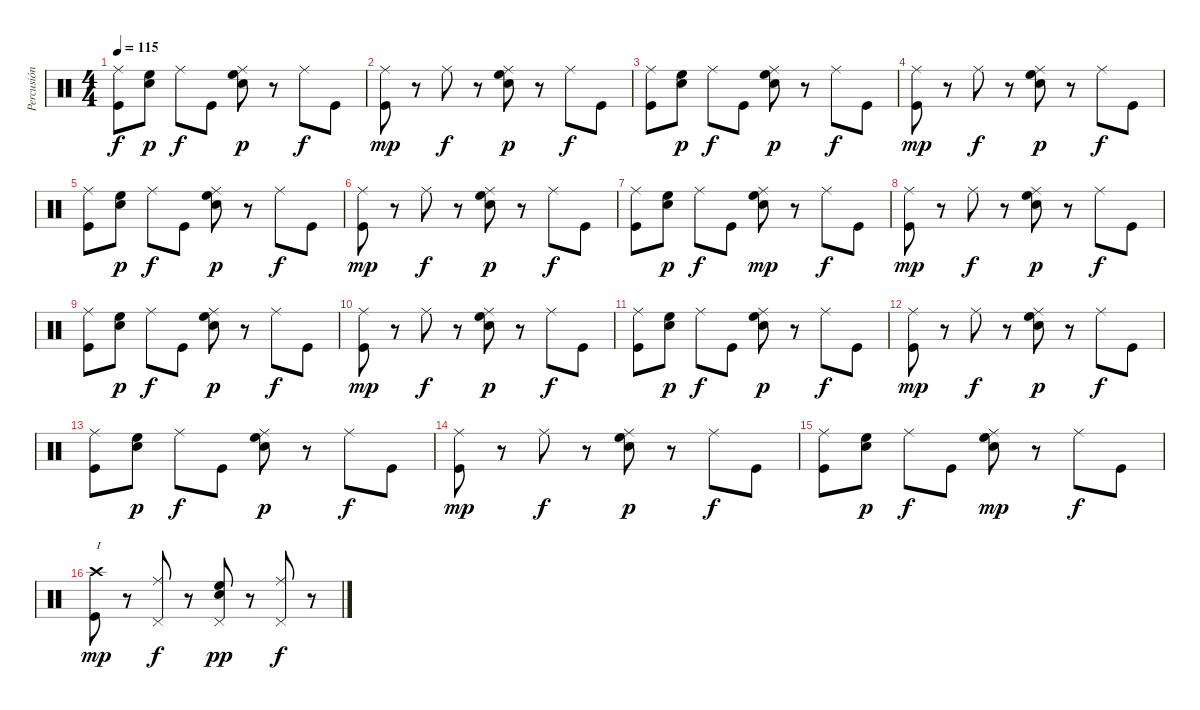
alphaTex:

\track ("Percusión" "Percusión") {instrument percussion}
\staff {score}
\articulation defaults
\ts (4 4)
\tempo 115
\clef neutral
\ks c
("Ride (middle)" "Kick (hit)").8{dy f} ("High Floor Tom (hit)" "Electric Snare (hit)").8{dy p} "Ride (middle)".8{dy f} "Kick (hit)".8 ("Ride (middle)" "High Floor Tom (hit)" "Electric Snare (hit)").8{dy p} r.8 "Ride (middle)".8{dy f} "Kick (hit)".8 |
("Ride (middle)" "Kick (hit)").8{dy mp} r.8 "Ride (middle)".8{dy f} r.8 ("Ride (middle)" "Electric Snare (hit)" "High Floor Tom (hit)").8{dy p} r.8 "Ride (middle)".8{dy f} "Kick (hit)".8 |
("Ride (middle)" "Kick (hit)").8 ("High Floor Tom (hit)" "Electric Snare (hit)").8{dy p} "Ride (middle)".8{dy f} "Kick (hit)".8 ("Ride (middle)" "High Floor Tom (hit)" "Electric Snare (hit)").8{dy p} r.8 "Ride (middle)".8{dy f} "Kick (hit)".8 |
("Ride (middle)" "Kick (hit)").8{dy mp} r.8 "Ride (middle)".8{dy f} r.8 ("Ride (middle)" "Electric Snare (hit)" "High Floor Tom (hit)").8{dy p} r.8 "Ride (middle)".8{dy f} "Kick (hit)".8 |
("Ride (middle)" "Kick (hit)").8 ("High Floor Tom (hit)" "Electric Snare (hit)").8{dy p} "Ride (middle)".8{dy f} "Kick (hit)".8 ("Ride (middle)" "High Floor Tom (hit)" "Electric Snare (hit)").8{dy p} r.8 "Ride (middle)".8{dy f} "Kick (hit)".8 |
("Ride (middle)" "Kick (hit)").8{dy mp} r.8 "Ride (middle)".8{dy f} r.8 ("Ride (middle)" "Electric Snare (hit)" "High Floor Tom (hit)").8{dy p} r.8 "Ride (middle)".8{dy f} "Kick (hit)".8 |
("Ride (middle)" "Kick (hit)").8 ("High Floor Tom (hit)" "Electric Snare (hit)").8{dy p} "Ride (middle)".8{dy f} "Kick (hit)".8 ("Ride (middle)" "High Floor Tom (hit)" "Electric Snare (hit)").8{dy mp} r.8 "Ride (middle)".8{dy f} "Kick (hit)".8 |
("Ride (middle)" "Kick (hit)").8{dy mp} r.8 "Ride (middle)".8{dy f} r.8 ("Ride (middle)" "Electric Snare (hit)" "High Floor Tom (hit)").8{dy p} r.8 "Ride (middle)".8{dy f} "Kick (hit)".8 |
("Ride (middle)" "Kick (hit)").8 ("High Floor Tom (hit)" "Electric Snare (hit)").8{dy p} "Ride (middle)".8{dy f} "Kick (hit)".8 ("Ride (middle)" "High Floor Tom (hit)" "Electric Snare (hit)").8{dy p} r.8 "Ride (middle)".8{dy f} "Kick (hit)".8 |
("Ride (middle)" "Kick (hit)").8{dy mp} r.8 "Ride (middle)".8{dy f} r.8 ("Ride (middle)" "Electric Snare (hit)" "High Floor Tom (hit)").8{dy p} r.8 "Ride (middle)".8{dy f} "Kick (hit)".8 |
("Ride (middle)" "Kick (hit)").8 ("High Floor Tom (hit)" "Electric Snare (hit)").8{dy p} "Ride (middle)".8{dy f} "Kick (hit)".8 ("Ride (middle)" "High Floor Tom (hit)" "Electric Snare (hit)").8{dy p} r.8 "Ride (middle)".8{dy f} "Kick (hit)".8 |
("Ride (middle)" "Kick (hit)").8{dy mp} r.8 "Ride (middle)".8{dy f} r.8 ("Ride (middle)" "Electric Snare (hit)" "High Floor Tom (hit)").8{dy p} r.8 "Ride (middle)".8{dy f} "Kick (hit)".8 |
("Ride (middle)" "Kick (hit)").8 ("High Floor Tom (hit)" "Electric Snare (hit)").8{dy p} "Ride (middle)".8{dy f} "Kick (hit)".8 ("Ride (middle)" "High Floor Tom (hit)" "Electric Snare (hit)").8{dy p} r.8 "Ride (middle)".8{dy f} "Kick (hit)".8 |
("Ride (middle)" "Kick (hit)").8{dy mp} r.8 "Ride (middle)".8{dy f} r.8 ("Ride (middle)" "Electric Snare (hit)" "High Floor Tom (hit)").8{dy p} r.8 "Ride (middle)".8{dy f} "Kick (hit)".8 |
("Ride (middle)" "Kick (hit)").8 ("High Floor Tom (hit)" "Electric Snare (hit)").8{dy p} "Ride (middle)".8{dy f} "Kick (hit)".8 ("Ride (middle)" "High Floor Tom (hit)" "Electric Snare (hit)").8{dy mp} r.8 "Ride (middle)".8{dy f} "Kick (hit)".8 |
("Crash high (hit)" "Kick (hit)").8{txt "I" dy mp} r.8 ("Pedal Hi-Hat (hit)" "Ride (middle)").8{dy f} r.8 ("Pedal Hi-Hat (hit)" "Electric Snare (hit)" "High Floor Tom (hit)").8{dy pp} r.8 ("Pedal Hi-Hat (hit)" "Ride (middle)").8{dy f} r.8
